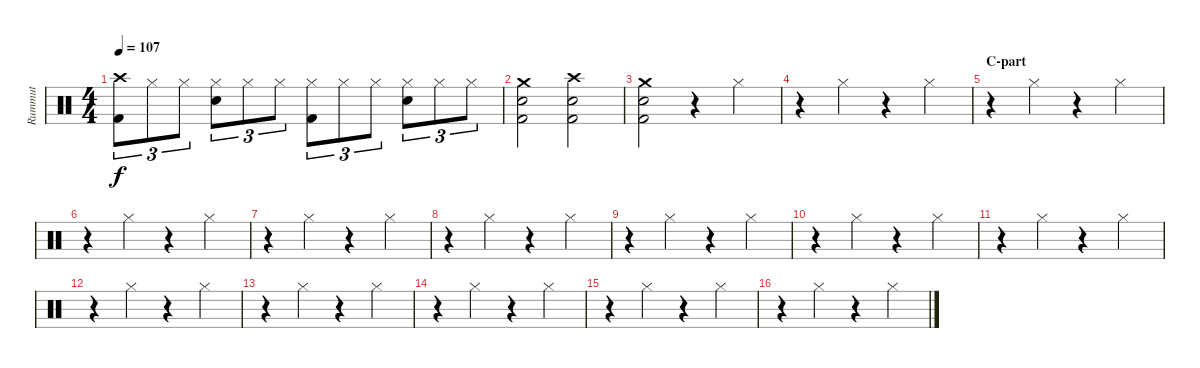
\track ("Rummut" "Rummut") {instrument percussion}
\staff {score}
\articulation defaults
\ts (4 4)
\tempo 107
\clef neutral
\ks c
("Crash high (hit)" "Kick (hit) 2").8{tu (3 2) dy f} "Hi-Hat (closed)".8{tu (3 2)} "Hi-Hat (closed)".8{tu (3 2)} ("Hi-Hat (closed)" "Snare (hit) 2").8{tu (3 2)} "Hi-Hat (closed)".8{tu (3 2)} "Hi-Hat (closed)".8{tu (3 2)} ("Hi-Hat (closed)" "Kick (hit) 2").8{tu (3 2)} "Hi-Hat (closed)".8{tu (3 2)} "Hi-Hat (closed)".8{tu (3 2)} ("Hi-Hat (closed)" "Snare (hit) 2").8{tu (3 2)} "Hi-Hat (closed)".8{tu (3 2)} "Hi-Hat (closed)".8{tu (3 2)} |
("Crash medium (hit)" "Snare (hit) 2" "Kick (hit) 2").2 ("Crash high (hit)" "Snare (hit) 2" "Kick (hit) 2").2 |
("Crash medium (hit)" "Snare (hit) 2" "Kick (hit) 2").2 r.4 "Hi-Hat (closed)".4{volume 8} |
r.4 "Hi-Hat (closed)".4 r.4 "Hi-Hat (closed)".4 |
\section ("" "C-part")
r.4 "Hi-Hat (closed)".4 r.4 "Hi-Hat (closed)".4 |
r.4 "Hi-Hat (closed)".4 r.4 "Hi-Hat (closed)".4 |
r.4 "Hi-Hat (closed)".4 r.4 "Hi-Hat (closed)".4 |
r.4 "Hi-Hat (closed)".4 r.4 "Hi-Hat (closed)".4 |
r.4 "Hi-Hat (closed)".4 r.4 "Hi-Hat (closed)".4 |
r.4 "Hi-Hat (closed)".4 r.4 "Hi-Hat (closed)".4 |
r.4 "Hi-Hat (closed)".4 r.4 "Hi-Hat (closed)".4 |
r.4 "Hi-Hat (closed)".4 r.4 "Hi-Hat (closed)".4 |
r.4 "Hi-Hat (closed)".4 r.4 "Hi-Hat (closed)".4 |
r.4 "Hi-Hat (closed)".4 r.4 "Hi-Hat (closed)".4 |
r.4 "Hi-Hat (closed)".4 r.4 "Hi-Hat (closed)".4 |
r.4 "Hi-Hat (closed)".4 r.4 "Hi-Hat (closed)".4
